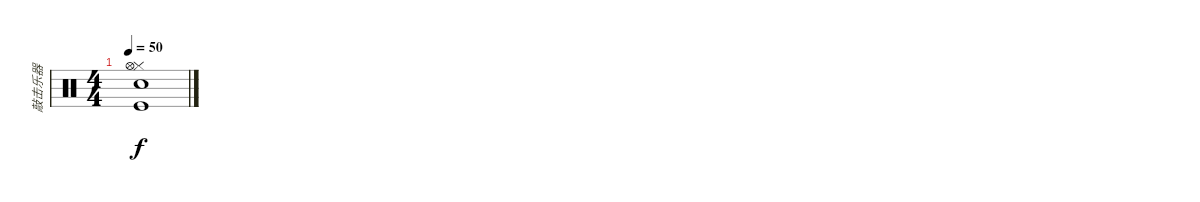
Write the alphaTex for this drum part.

\track ("敲击乐器" "敲击乐器") {instrument percussion}
\staff {score}
\articulation defaults
\ts (4 4)
\tempo 50
\clef neutral
\ks c
("Hi-Hat (closed)" "Hi-Hat (open)" "Hand Clap (hit)" "Kick (hit)").1{dy f}
